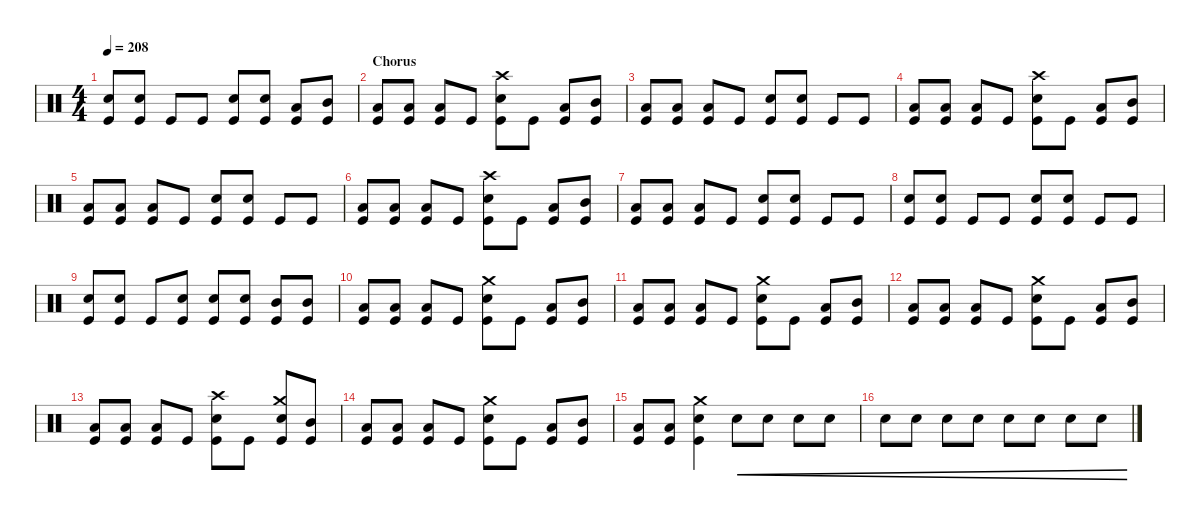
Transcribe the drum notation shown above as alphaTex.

\defaultSystemsLayout 4
\hideDynamics
\bracketExtendMode nobrackets
\singleTrackTrackNamePolicy hidden
\multiTrackTrackNamePolicy hidden
\otherSystemsTrackNameOrientation horizontal
\track ("Drums" "drm.") {multiBarRest instrument percussion}
\staff {score}
\articulation defaults
\ts (4 4)
\tempo 208
\clef neutral
\ks c
("Kick (hit)" "Snare (hit) 2").8{dy f beam Up} ("Kick (hit)" "Snare (hit) 2").8{beam Up} "Kick (hit)".8{beam Up} "Kick (hit)".8{beam Up} ("Kick (hit)" "Snare (hit) 2").8{beam Up} ("Kick (hit)" "Snare (hit) 2").8{beam Up} ("Kick (hit)" "Low Tom (hit)").8{beam Up} ("Kick (hit)" "Mid Tom (hit)").8{beam Up} |
\section ("" "Chorus")
("Kick (hit)" "Low Tom (hit)").8{beam Up} ("Kick (hit)" "Low Tom (hit)").8{beam Up} ("Kick (hit)" "Low Tom (hit)").8{beam Up} "Kick (hit)".8{beam Up} ("Kick (hit)" "Snare (hit) 2" "Crash high (hit)").8{beam Down} "Kick (hit)".8{beam Down} ("Kick (hit)" "Low Tom (hit)").8{beam Up} ("Kick (hit)" "Mid Tom (hit)").8{beam Up} |
("Kick (hit)" "Low Tom (hit)").8{beam Up} ("Kick (hit)" "Low Tom (hit)").8{beam Up} ("Kick (hit)" "Low Tom (hit)").8{beam Up} "Kick (hit)".8{beam Up} ("Kick (hit)" "Snare (hit) 2").8{beam Up} ("Kick (hit)" "Snare (hit) 2").8{beam Up} "Kick (hit)".8{beam Up} "Kick (hit)".8{beam Up} |
("Kick (hit)" "Low Tom (hit)").8{beam Up} ("Kick (hit)" "Low Tom (hit)").8{beam Up} ("Kick (hit)" "Low Tom (hit)").8{beam Up} "Kick (hit)".8{beam Up} ("Kick (hit)" "Snare (hit) 2" "Crash high (hit)").8{beam Down} "Kick (hit)".8{beam Down} ("Kick (hit)" "Low Tom (hit)").8{beam Up} ("Kick (hit)" "Mid Tom (hit)").8{beam Up} |
("Kick (hit)" "Low Tom (hit)").8{beam Up} ("Kick (hit)" "Low Tom (hit)").8{beam Up} ("Kick (hit)" "Low Tom (hit)").8{beam Up} "Kick (hit)".8{beam Up} ("Kick (hit)" "Snare (hit) 2").8{beam Up} ("Kick (hit)" "Snare (hit) 2").8{beam Up} "Kick (hit)".8{beam Up} "Kick (hit)".8{beam Up} |
("Kick (hit)" "Low Tom (hit)").8{beam Up} ("Kick (hit)" "Low Tom (hit)").8{beam Up} ("Kick (hit)" "Low Tom (hit)").8{beam Up} "Kick (hit)".8{beam Up} ("Kick (hit)" "Snare (hit) 2" "Crash high (hit)").8{beam Down} "Kick (hit)".8{beam Down} ("Kick (hit)" "Low Tom (hit)").8{beam Up} ("Kick (hit)" "Mid Tom (hit)").8{beam Up} |
("Kick (hit)" "Low Tom (hit)").8{beam Up} ("Kick (hit)" "Low Tom (hit)").8{beam Up} ("Kick (hit)" "Low Tom (hit)").8{beam Up} "Kick (hit)".8{beam Up} ("Kick (hit)" "Snare (hit) 2").8{beam Up} ("Kick (hit)" "Snare (hit) 2").8{beam Up} "Kick (hit)".8{beam Up} "Kick (hit)".8{beam Up} |
("Kick (hit)" "Snare (hit) 2").8{beam Up} ("Kick (hit)" "Snare (hit) 2").8{beam Up} "Kick (hit)".8{beam Up} "Kick (hit)".8{beam Up} ("Kick (hit)" "Snare (hit) 2").8{beam Up} ("Kick (hit)" "Snare (hit) 2").8{beam Up} "Kick (hit)".8{beam Up} "Kick (hit)".8{beam Up} |
("Kick (hit)" "Snare (hit) 2").8{beam Up} ("Kick (hit)" "Snare (hit) 2").8{beam Up} "Kick (hit)".8{beam Up} ("Kick (hit)" "Snare (hit) 2").8{beam Up} ("Kick (hit)" "Snare (hit) 2").8{beam Up} ("Kick (hit)" "Snare (hit) 2").8{beam Up} ("Kick (hit)" "Mid Tom (hit)").8{beam Up} ("Kick (hit)" "Mid Tom (hit)").8{beam Up} |
("Kick (hit)" "Low Tom (hit)").8{beam Up} ("Kick (hit)" "Low Tom (hit)").8{beam Up} ("Kick (hit)" "Low Tom (hit)").8{beam Up} "Kick (hit)".8{beam Up} ("Kick (hit)" "Crash medium (hit)" "Snare (hit) 2").8{beam Down} "Kick (hit)".8{beam Down} ("Kick (hit)" "Low Tom (hit)").8{beam Up} ("Kick (hit)" "Mid Tom (hit)").8{beam Up} |
("Kick (hit)" "Low Tom (hit)").8{beam Up} ("Kick (hit)" "Low Tom (hit)").8{beam Up} ("Kick (hit)" "Low Tom (hit)").8{beam Up} "Kick (hit)".8{beam Up} ("Kick (hit)" "Snare (hit) 2" "Crash medium (hit)").8{beam Down} "Kick (hit)".8{beam Down} ("Kick (hit)" "Low Tom (hit)").8{beam Up} ("Kick (hit)" "Mid Tom (hit)").8{beam Up} |
("Kick (hit)" "Low Tom (hit)").8{beam Up} ("Kick (hit)" "Low Tom (hit)").8{beam Up} ("Kick (hit)" "Low Tom (hit)").8{beam Up} "Kick (hit)".8{beam Up} ("Kick (hit)" "Snare (hit) 2" "Crash medium (hit)").8{beam Down} "Kick (hit)".8{beam Down} ("Kick (hit)" "Low Tom (hit)").8{beam Up} ("Kick (hit)" "Mid Tom (hit)").8{beam Up} |
("Kick (hit)" "Low Tom (hit)").8{beam Up} ("Kick (hit)" "Low Tom (hit)").8{beam Up} ("Kick (hit)" "Low Tom (hit)").8{beam Up} "Kick (hit)".8{beam Up} ("Kick (hit)" "Snare (hit) 2" "Crash high (hit)").8{beam Down} "Kick (hit)".8{beam Down} ("Kick (hit)" "Crash medium (hit)" "Snare (hit) 2").8{beam Up} ("Kick (hit)" "Mid Tom (hit)").8{beam Up} |
("Kick (hit)" "Low Tom (hit)").8{beam Up} ("Kick (hit)" "Low Tom (hit)").8{beam Up} ("Kick (hit)" "Low Tom (hit)").8{beam Up} "Kick (hit)".8{beam Up} ("Kick (hit)" "Snare (hit) 2" "Crash medium (hit)").8{beam Down} "Kick (hit)".8{beam Down} ("Kick (hit)" "Low Tom (hit)").8{beam Up} ("Kick (hit)" "Mid Tom (hit)").8{beam Up} |
("Kick (hit)" "Low Tom (hit)").8{beam Up} ("Kick (hit)" "Low Tom (hit)").8{beam Up} ("Kick (hit)" "Snare (hit) 2" "Crash medium (hit)").4{beam Down} "Snare (hit) 2".8{cre dy mp beam Down} "Snare (hit) 2".8{cre beam Down} "Snare (hit) 2".8{cre beam Down} "Snare (hit) 2".8{cre beam Down} |
"Snare (hit) 2".8{cre dy mf beam Down} "Snare (hit) 2".8{cre beam Down} "Snare (hit) 2".8{cre beam Down} "Snare (hit) 2".8{cre beam Down} "Snare (hit) 2".8{cre dy f beam Down} "Snare (hit) 2".8{cre beam Down} "Snare (hit) 2".8{cre beam Down} "Snare (hit) 2".8{cre beam Down}
